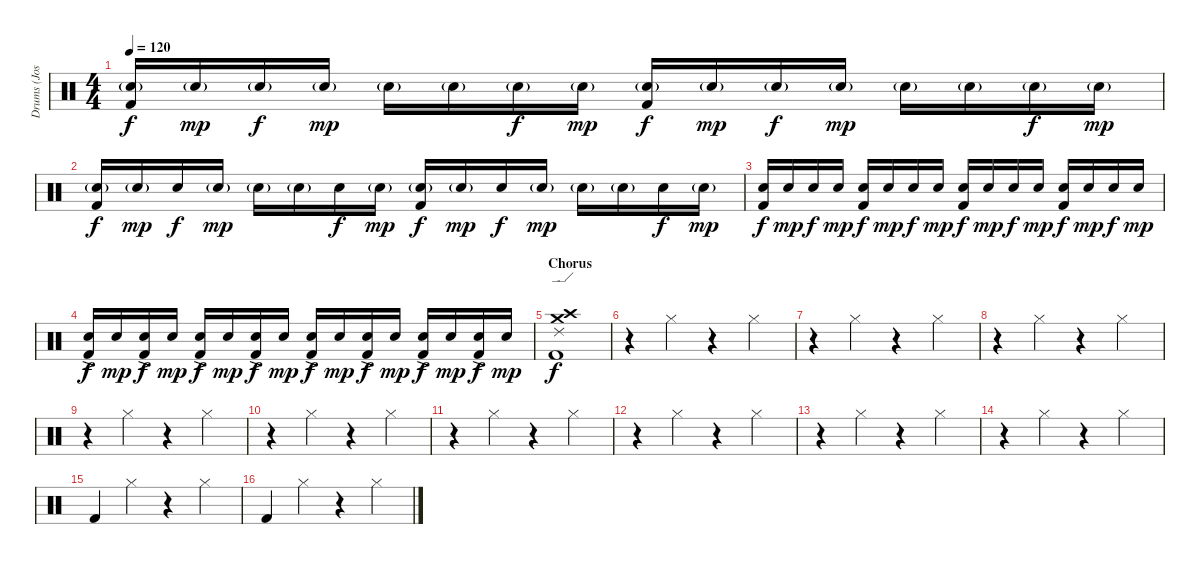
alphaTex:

\track ("Drums (Josh Dun)" "Drums (Jos") {instrument percussion}
\staff {score}
\articulation defaults
\ts (4 4)
\tempo 120
\clef neutral
\ks c
("Snare (hit) 2"{g} "Kick (hit) 2").16{dy f} "Snare (hit) 2"{g}.16{dy mp} "Electric Snare (hit)"{g}.16{dy f} "Snare (hit) 2"{g}.16{dy mp} "Snare (hit) 2"{g}.16 "Snare (hit) 2"{g}.16 "Electric Snare (hit)"{g}.16{dy f} "Snare (hit) 2"{g}.16{dy mp} ("Snare (hit) 2"{g} "Kick (hit) 2").16{dy f} "Snare (hit) 2"{g}.16{dy mp} "Electric Snare (hit)"{g}.16{dy f} "Snare (hit) 2"{g}.16{dy mp} "Snare (hit) 2"{g}.16 "Snare (hit) 2"{g}.16 "Electric Snare (hit)"{g}.16{dy f} "Snare (hit) 2"{g}.16{dy mp} |
("Snare (hit) 2"{g} "Kick (hit) 2").16{dy f} "Snare (hit) 2"{g}.16{dy mp} "Electric Snare (hit)".16{dy f} "Snare (hit) 2"{g}.16{dy mp} "Snare (hit) 2"{g}.16 "Snare (hit) 2"{g}.16 "Electric Snare (hit)".16{dy f} "Snare (hit) 2"{g}.16{dy mp} ("Snare (hit) 2"{g} "Kick (hit) 2").16{dy f} "Snare (hit) 2"{g}.16{dy mp} "Electric Snare (hit)".16{dy f} "Snare (hit) 2"{g}.16{dy mp} "Snare (hit) 2"{g}.16 "Snare (hit) 2"{g}.16 "Electric Snare (hit)".16{dy f} "Snare (hit) 2"{g}.16{dy mp} |
("Snare (hit) 2" "Kick (hit) 2").16{dy f} "Snare (hit) 2".16{dy mp} "Electric Snare (hit)".16{dy f} "Snare (hit) 2".16{dy mp} ("Snare (hit) 2" "Kick (hit) 2").16{dy f} "Snare (hit) 2".16{dy mp} "Electric Snare (hit)".16{dy f} "Snare (hit) 2".16{dy mp} ("Snare (hit) 2" "Kick (hit) 2").16{dy f} "Snare (hit) 2".16{dy mp} "Electric Snare (hit)".16{dy f} "Snare (hit) 2".16{dy mp} ("Snare (hit) 2" "Kick (hit) 2").16{dy f} "Snare (hit) 2".16{dy mp} "Electric Snare (hit)".16{dy f} "Snare (hit) 2".16{dy mp} |
("Snare (hit) 2" "Kick (hit) 2"{ac}).16{dy f} "Snare (hit) 2".16{dy mp} ("Electric Snare (hit)"{ac} "Kick (hit) 2").16{dy f} "Snare (hit) 2".16{dy mp} ("Snare (hit) 2" "Kick (hit) 2"{ac}).16{dy f} "Snare (hit) 2".16{dy mp} ("Electric Snare (hit)"{ac} "Kick (hit) 2").16{dy f} "Snare (hit) 2".16{dy mp} ("Snare (hit) 2" "Kick (hit) 2"{ac}).16{dy f} "Snare (hit) 2".16{dy mp} ("Electric Snare (hit)"{ac} "Kick (hit) 2").16{dy f} "Snare (hit) 2".16{dy mp} ("Snare (hit) 2" "Kick (hit) 2"{ac}).16{dy f} "Snare (hit) 2".16{dy mp} ("Electric Snare (hit)"{ac} "Kick (hit) 2").16{dy f} "Snare (hit) 2".16{dy mp} |
\section ("" "Chorus")
("Crash medium (hit)" "Crash high (hit)" "Ride (edge) 2" "Kick (hit) 2").1{dy f} |
r.4 "Hi-Hat (closed)".4 r.4 "Hi-Hat (closed)".4 |
r.4 "Hi-Hat (closed)".4 r.4 "Hi-Hat (closed)".4 |
r.4 "Hi-Hat (closed)".4 r.4 "Hi-Hat (closed)".4 |
r.4 "Hi-Hat (closed)".4 r.4 "Hi-Hat (closed)".4 |
r.4 "Hi-Hat (closed)".4 r.4 "Hi-Hat (closed)".4 |
r.4 "Hi-Hat (closed)".4 r.4 "Hi-Hat (closed)".4 |
r.4 "Hi-Hat (closed)".4 r.4 "Hi-Hat (closed)".4 |
r.4 "Hi-Hat (closed)".4 r.4 "Hi-Hat (closed)".4 |
r.4 "Hi-Hat (closed)".4 r.4 "Hi-Hat (closed)".4 |
"Kick (hit) 2".4 "Hi-Hat (closed)".4 r.4 "Hi-Hat (closed)".4 |
"Kick (hit) 2".4 "Hi-Hat (closed)".4 r.4 "Hi-Hat (closed)".4
